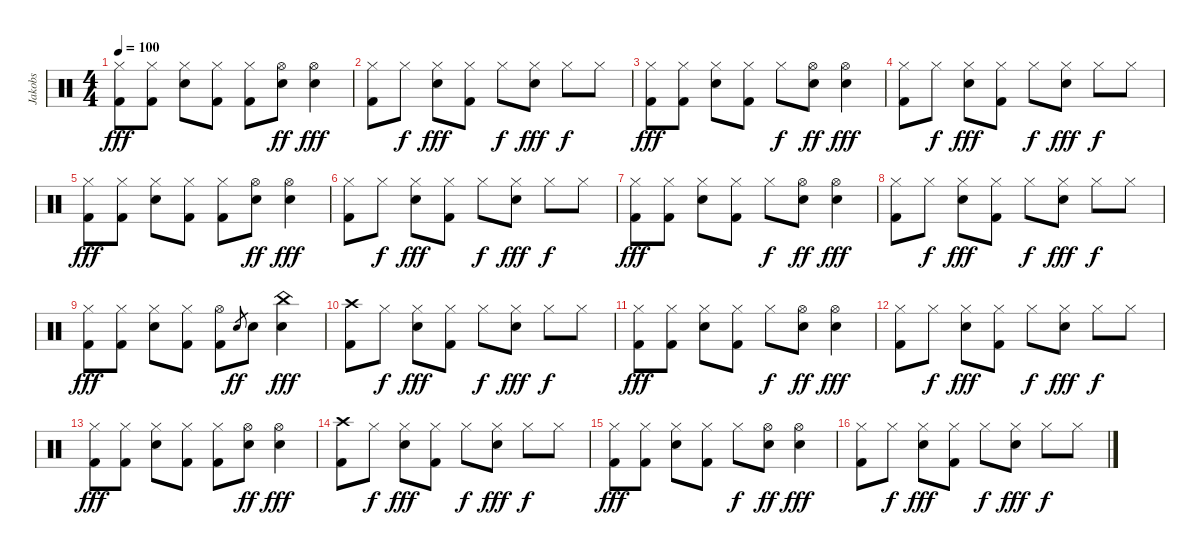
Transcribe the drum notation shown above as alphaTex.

\track ("Jakobs" "Jakobs") {instrument percussion}
\staff {score}
\articulation defaults
\ts (4 4)
\tempo 100
\clef neutral
\ks c
("Hi-Hat (closed)" "Kick (hit) 2").8{dy fff} ("Hi-Hat (closed)" "Kick (hit) 2").8 ("Hi-Hat (closed)" "Snare (hit) 2").8 ("Hi-Hat (closed)" "Kick (hit) 2").8 ("Hi-Hat (closed)" "Kick (hit) 2").8 ("Hi-Hat (open)" "Snare (hit) 2").8{dy ff} ("Hi-Hat (open)" "Snare (hit) 2").4{dy fff} |
("Hi-Hat (closed)" "Kick (hit) 2").8 "Hi-Hat (closed)".8{dy f} ("Hi-Hat (closed)" "Snare (hit) 2").8{dy fff} ("Hi-Hat (closed)" "Kick (hit) 2").8 "Hi-Hat (closed)".8{dy f} ("Hi-Hat (closed)" "Snare (hit) 2").8{dy fff} "Hi-Hat (closed)".8{dy f} "Hi-Hat (closed)".8 |
("Hi-Hat (closed)" "Kick (hit) 2").8{dy fff} ("Hi-Hat (closed)" "Kick (hit) 2").8 ("Hi-Hat (closed)" "Snare (hit) 2").8 ("Hi-Hat (closed)" "Kick (hit) 2").8 "Hi-Hat (closed)".8{dy f} ("Hi-Hat (open)" "Snare (hit) 2").8{dy ff} ("Hi-Hat (open)" "Snare (hit) 2").4{dy fff} |
("Hi-Hat (closed)" "Kick (hit) 2").8 "Hi-Hat (closed)".8{dy f} ("Hi-Hat (closed)" "Snare (hit) 2").8{dy fff} ("Hi-Hat (closed)" "Kick (hit) 2").8 "Hi-Hat (closed)".8{dy f} ("Hi-Hat (closed)" "Snare (hit) 2").8{dy fff} "Hi-Hat (closed)".8{dy f} "Hi-Hat (closed)".8 |
("Hi-Hat (closed)" "Kick (hit) 2").8{dy fff} ("Hi-Hat (closed)" "Kick (hit) 2").8 ("Hi-Hat (closed)" "Snare (hit) 2").8 ("Hi-Hat (closed)" "Kick (hit) 2").8 ("Hi-Hat (closed)" "Kick (hit) 2").8 ("Hi-Hat (open)" "Snare (hit) 2").8{dy ff} ("Hi-Hat (open)" "Snare (hit) 2").4{dy fff} |
("Hi-Hat (closed)" "Kick (hit) 2").8 "Hi-Hat (closed)".8{dy f} ("Hi-Hat (closed)" "Snare (hit) 2").8{dy fff} ("Hi-Hat (closed)" "Kick (hit) 2").8 "Hi-Hat (closed)".8{dy f} ("Hi-Hat (closed)" "Snare (hit) 2").8{dy fff} "Hi-Hat (closed)".8{dy f} "Hi-Hat (closed)".8 |
("Hi-Hat (closed)" "Kick (hit) 2").8{dy fff} ("Hi-Hat (closed)" "Kick (hit) 2").8 ("Hi-Hat (closed)" "Snare (hit) 2").8 ("Hi-Hat (closed)" "Kick (hit) 2").8 "Hi-Hat (closed)".8{dy f} ("Hi-Hat (open)" "Snare (hit) 2").8{dy ff} ("Hi-Hat (open)" "Snare (hit) 2").4{dy fff} |
("Hi-Hat (closed)" "Kick (hit) 2").8 "Hi-Hat (closed)".8{dy f} ("Hi-Hat (closed)" "Snare (hit) 2").8{dy fff} ("Hi-Hat (closed)" "Kick (hit) 2").8 "Hi-Hat (closed)".8{dy f} ("Hi-Hat (closed)" "Snare (hit) 2").8{dy fff} "Hi-Hat (closed)".8{dy f} "Hi-Hat (closed)".8 |
("Hi-Hat (closed)" "Kick (hit) 2").8{dy fff} ("Hi-Hat (closed)" "Kick (hit) 2").8 ("Hi-Hat (closed)" "Snare (hit) 2").8 ("Hi-Hat (closed)" "Kick (hit) 2").8 ("Hi-Hat (open)" "Kick (hit) 2").8 "Snare (hit) 2".8{gr dy ff} "Snare (hit) 2".8 ("China (hit)" "Snare (hit) 2").4{dy fff} |
("Crash high (hit)" "Kick (hit) 2").8 "Hi-Hat (closed)".8{dy f} ("Hi-Hat (closed)" "Snare (hit) 2").8{dy fff} ("Hi-Hat (closed)" "Kick (hit) 2").8 "Hi-Hat (closed)".8{dy f} ("Hi-Hat (closed)" "Snare (hit) 2").8{dy fff} "Hi-Hat (closed)".8{dy f} "Hi-Hat (closed)".8 |
("Hi-Hat (closed)" "Kick (hit) 2").8{dy fff} ("Hi-Hat (closed)" "Kick (hit) 2").8 ("Hi-Hat (closed)" "Snare (hit) 2").8 ("Hi-Hat (closed)" "Kick (hit) 2").8 "Hi-Hat (closed)".8{dy f} ("Hi-Hat (open)" "Snare (hit) 2").8{dy ff} ("Hi-Hat (open)" "Snare (hit) 2").4{dy fff} |
("Hi-Hat (closed)" "Kick (hit) 2").8 "Hi-Hat (closed)".8{dy f} ("Hi-Hat (closed)" "Snare (hit) 2").8{dy fff} ("Hi-Hat (closed)" "Kick (hit) 2").8 "Hi-Hat (closed)".8{dy f} ("Hi-Hat (closed)" "Snare (hit) 2").8{dy fff} "Hi-Hat (closed)".8{dy f} "Hi-Hat (closed)".8 |
("Hi-Hat (closed)" "Kick (hit) 2").8{dy fff} ("Hi-Hat (closed)" "Kick (hit) 2").8 ("Hi-Hat (closed)" "Snare (hit) 2").8 ("Hi-Hat (closed)" "Kick (hit) 2").8 ("Hi-Hat (closed)" "Kick (hit) 2").8 ("Hi-Hat (open)" "Snare (hit) 2").8{dy ff} ("Hi-Hat (open)" "Snare (hit) 2").4{dy fff} |
("Crash high (hit)" "Kick (hit) 2").8 "Hi-Hat (closed)".8{dy f} ("Hi-Hat (closed)" "Snare (hit) 2").8{dy fff} ("Hi-Hat (closed)" "Kick (hit) 2").8 "Hi-Hat (closed)".8{dy f} ("Hi-Hat (closed)" "Snare (hit) 2").8{dy fff} "Hi-Hat (closed)".8{dy f} "Hi-Hat (closed)".8 |
("Hi-Hat (closed)" "Kick (hit) 2").8{dy fff} ("Hi-Hat (closed)" "Kick (hit) 2").8 ("Hi-Hat (closed)" "Snare (hit) 2").8 ("Hi-Hat (closed)" "Kick (hit) 2").8 "Hi-Hat (closed)".8{dy f} ("Hi-Hat (open)" "Snare (hit) 2").8{dy ff} ("Hi-Hat (open)" "Snare (hit) 2").4{dy fff} |
("Hi-Hat (closed)" "Kick (hit) 2").8 "Hi-Hat (closed)".8{dy f} ("Hi-Hat (closed)" "Snare (hit) 2").8{dy fff} ("Hi-Hat (closed)" "Kick (hit) 2").8 "Hi-Hat (closed)".8{dy f} ("Hi-Hat (closed)" "Snare (hit) 2").8{dy fff} "Hi-Hat (closed)".8{dy f} "Hi-Hat (closed)".8
